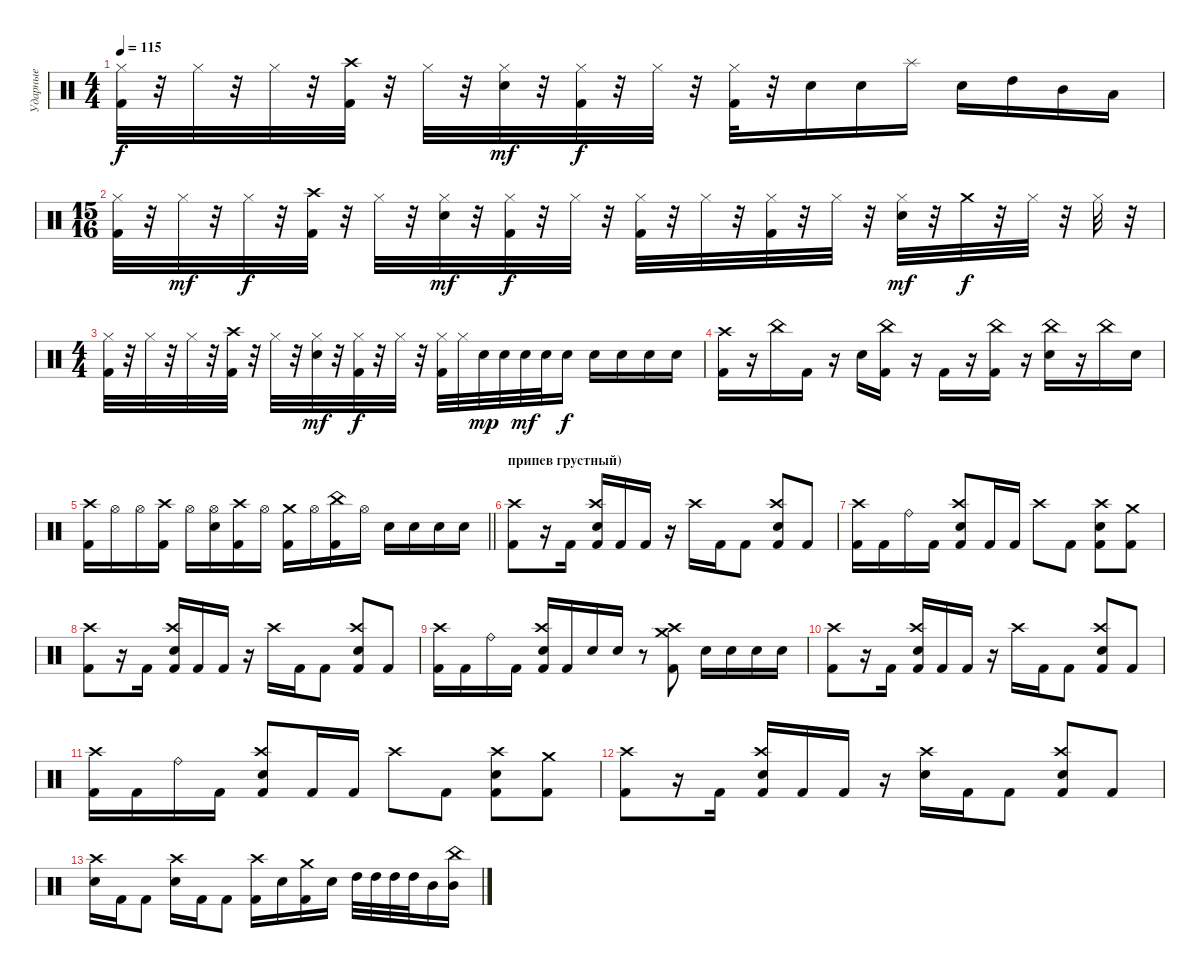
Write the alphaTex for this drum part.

\track ("Ударные" "Ударные") {instrument percussion}
\staff {score}
\articulation defaults
\ts (4 4)
\tempo 115
\clef neutral
\ks c
("Hi-Hat (closed)" "Kick (hit) 2").32{dy f} r.32 "Hi-Hat (closed)".32 r.32 "Hi-Hat (closed)".32 r.32 ("Crash high (hit)" "Kick (hit) 2").32 r.32 "Hi-Hat (closed)".32 r.32 ("Hi-Hat (closed)" "Electric Snare (hit)").32{dy mf} r.32 ("Hi-Hat (closed)" "Kick (hit) 2").32{dy f} r.32 "Hi-Hat (closed)".32 r.32 ("Hi-Hat (closed)" "Kick (hit) 2").32 r.32 "Electric Snare (hit)".16 "Electric Snare (hit)".16 "Splash (hit)".16 "Electric Snare (hit)".16 "High Tom (hit)".16 "Mid Tom (hit)".16 "Low Tom (hit)".16 |
\ts (15 16)
("Hi-Hat (closed)" "Kick (hit) 2").32 r.32 "Hi-Hat (closed)".32{dy mf} r.32 "Hi-Hat (closed)".32{dy f} r.32 ("Crash high (hit)" "Kick (hit) 2").32 r.32 "Hi-Hat (closed)".32 r.32 ("Hi-Hat (closed)" "Electric Snare (hit)").32{dy mf} r.32 ("Hi-Hat (closed)" "Kick (hit) 2").32{dy f} r.32 "Hi-Hat (closed)".32 r.32 ("Hi-Hat (closed)" "Kick (hit) 2").32 r.32 "Hi-Hat (closed)".32 r.32 ("Hi-Hat (closed)" "Kick (hit) 2").32 r.32 "Hi-Hat (closed)".32 r.32 ("Hi-Hat (closed)" "Electric Snare (hit)").32{dy mf} r.32 "Crash medium (hit)".32{dy f} r.32 "Hi-Hat (closed)".32 r.32 "Hi-Hat (closed)".32 r.32 |
\ts (4 4)
("Hi-Hat (closed)" "Kick (hit) 2").32 r.32 "Hi-Hat (closed)".32 r.32 "Hi-Hat (closed)".32 r.32 ("Crash high (hit)" "Kick (hit) 2").32 r.32 "Hi-Hat (closed)".32 r.32 ("Hi-Hat (closed)" "Electric Snare (hit)").32{dy mf} r.32 ("Hi-Hat (closed)" "Kick (hit) 2").32{dy f} r.32 "Hi-Hat (closed)".32 r.32 ("Hi-Hat (closed)" "Kick (hit) 2").32 "Hi-Hat (closed)".32 "Electric Snare (hit)".32{dy mp} "Electric Snare (hit)".32 "Electric Snare (hit)".32{dy mf} "Electric Snare (hit)".32 "Electric Snare (hit)".16{dy f} "Electric Snare (hit)".16 "Electric Snare (hit)".16 "Electric Snare (hit)".16 "Electric Snare (hit)".16 |
("Crash high (hit)" "Kick (hit) 2").16 r.16 "China (hit)".16 "Kick (hit) 2".16 r.16 "Electric Snare (hit)".16 ("China (hit)" "Kick (hit) 2").16 r.16 "Kick (hit) 2".16 r.16 ("China (hit)" "Kick (hit) 2").16 r.16 ("China (hit)" "Electric Snare (hit)").16 r.16 "China (hit)".16 "Electric Snare (hit)".16 |
\barLineRight lightlight
("Crash high (hit)" "Kick (hit) 2").16 "Hi-Hat (open)".16 "Hi-Hat (open)".16 ("Crash high (hit)" "Kick (hit) 2").16 "Hi-Hat (open)".16 ("Hi-Hat (open)" "Electric Snare (hit)").16 ("Crash high (hit)" "Kick (hit) 2").16 "Hi-Hat (open)".16 ("Crash medium (hit)" "Kick (hit) 2").16 "Hi-Hat (open)".16 ("China (hit)" "Kick (hit) 2").16 "Hi-Hat (open)".16 "Electric Snare (hit)".16 "Electric Snare (hit)".16 "Electric Snare (hit)".16 "Electric Snare (hit)".16 |
\section ("" "припев грустный)")
("Crash high (hit)" "Kick (hit) 2").8 r.16 "Kick (hit) 2".16 ("Crash high (hit)" "Electric Snare (hit)" "Kick (hit) 2").16 "Kick (hit) 2".16 "Kick (hit) 2".16 r.16 "Crash high (hit)".16 "Kick (hit) 2".16 "Kick (hit) 2".8 ("Crash high (hit)" "Electric Snare (hit)" "Kick (hit) 2").8 "Kick (hit) 2".8 |
("Crash high (hit)" "Kick (hit) 2").16 "Kick (hit) 2".16 "Ride (bell)".16 "Kick (hit) 2".16 ("Crash high (hit)" "Electric Snare (hit)" "Kick (hit) 2").8 "Kick (hit) 2".16 "Kick (hit) 2".16 "Crash high (hit)".8 "Kick (hit) 2".8 ("Crash high (hit)" "Electric Snare (hit)" "Kick (hit) 2").8 ("Crash medium (hit)" "Kick (hit) 2").8 |
("Crash high (hit)" "Kick (hit) 2").8 r.16 "Kick (hit) 2".16 ("Crash high (hit)" "Electric Snare (hit)" "Kick (hit) 2").16 "Kick (hit) 2".16 "Kick (hit) 2".16 r.16 "Crash high (hit)".16 "Kick (hit) 2".16 "Kick (hit) 2".8 ("Crash high (hit)" "Electric Snare (hit)" "Kick (hit) 2").8 "Kick (hit) 2".8 |
("Crash high (hit)" "Kick (hit) 2").16 "Kick (hit) 2".16 "Ride (bell)".16 "Kick (hit) 2".16 ("Crash high (hit)" "Electric Snare (hit)" "Kick (hit) 2").16 "Kick (hit) 2".16 "Electric Snare (hit)".16 "Electric Snare (hit)".16 r.8 ("Crash high (hit)" "Crash medium (hit)" "Kick (hit) 2").8 "Electric Snare (hit)".16 "Electric Snare (hit)".16 "Electric Snare (hit)".16 "Electric Snare (hit)".16 |
("Crash high (hit)" "Kick (hit) 2").8 r.16 "Kick (hit) 2".16 ("Crash high (hit)" "Electric Snare (hit)" "Kick (hit) 2").16 "Kick (hit) 2".16 "Kick (hit) 2".16 r.16 "Crash high (hit)".16 "Kick (hit) 2".16 "Kick (hit) 2".8 ("Crash high (hit)" "Electric Snare (hit)" "Kick (hit) 2").8 "Kick (hit) 2".8 |
("Crash high (hit)" "Kick (hit) 2").16 "Kick (hit) 2".16 "Ride (bell)".16 "Kick (hit) 2".16 ("Crash high (hit)" "Electric Snare (hit)" "Kick (hit) 2").8 "Kick (hit) 2".16 "Kick (hit) 2".16 "Crash high (hit)".8 "Kick (hit) 2".8 ("Crash high (hit)" "Electric Snare (hit)" "Kick (hit) 2").8 ("Crash medium (hit)" "Kick (hit) 2").8 |
("Crash high (hit)" "Kick (hit) 2").8 r.16 "Kick (hit) 2".16 ("Crash high (hit)" "Electric Snare (hit)" "Kick (hit) 2").16 "Kick (hit) 2".16 "Kick (hit) 2".16 r.16 ("Crash high (hit)" "Electric Snare (hit)").16 "Kick (hit) 2".16 "Kick (hit) 2".8 ("Crash high (hit)" "Electric Snare (hit)" "Kick (hit) 2").8 "Kick (hit) 2".8 |
("Crash high (hit)" "Electric Snare (hit)").16 "Kick (hit) 2".16 "Kick (hit) 2".8 ("Crash high (hit)" "Electric Snare (hit)").16 "Kick (hit) 2".16 "Kick (hit) 2".8 ("Crash high (hit)" "Kick (hit) 2").16 "Electric Snare (hit)".16 ("Crash medium (hit)" "Kick (hit) 2").16 "Electric Snare (hit)".16 "High Tom (hit)".32 "High Tom (hit)".32 "High Tom (hit)".32 "High Tom (hit)".32 "Mid Tom (hit)".16 ("China (hit)" "Mid Tom (hit)").16
